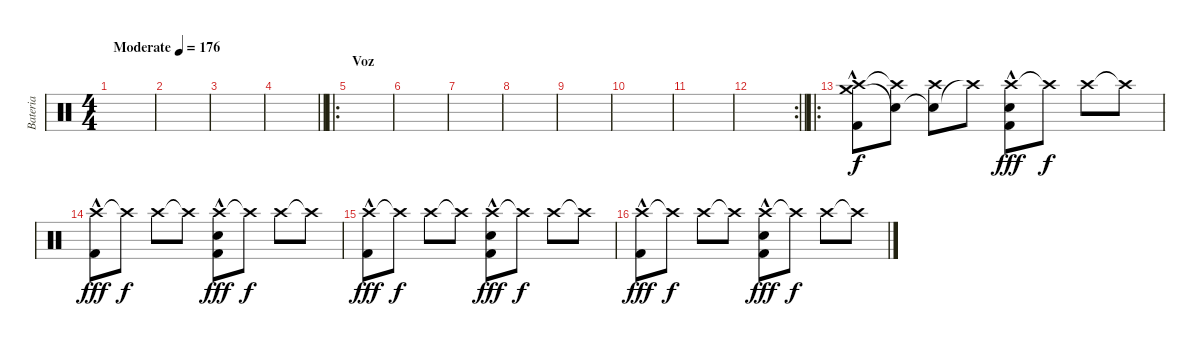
\track ("Bateria" "Bateria") {instrument percussion}
\staff {score}
\articulation defaults
\ts (4 4)
\tempo (176 "Moderate")
\clef neutral
\ks c
|
|
|
\barLineRight lightlight
|
\ro
\section ("" "Voz")
|
|
|
|
|
|
|
\rc 2
\barLineRight lightlight
|
\ro
("Crash medium (hit)" "Crash high (hit)" "Kick (hit) 2"{hac}).8 ("Snare (hit)"{t} "Crash high (hit)"{t}).8{dy f} ("Snare (hit)"{t} "Crash high (hit)").8 "Crash high (hit)"{t}.8 ("Crash high (hit)" "Electric Snare (hit)"{hac} "Kick (hit) 2"{hac}).8{dy fff} "Crash high (hit)"{t}.8{dy f} "Crash high (hit)".8 "Crash high (hit)"{t}.8 |
("Crash high (hit)" "Kick (hit) 2"{hac}).8{dy fff} "Crash high (hit)"{t}.8{dy f} "Crash high (hit)".8 "Crash high (hit)"{t}.8 ("Crash high (hit)" "Electric Snare (hit)"{hac} "Kick (hit) 2"{hac}).8{dy fff} "Crash high (hit)"{t}.8{dy f} "Crash high (hit)".8 "Crash high (hit)"{t}.8 |
("Crash high (hit)" "Kick (hit) 2"{hac}).8{dy fff} "Crash high (hit)"{t}.8{dy f} "Crash high (hit)".8 "Crash high (hit)"{t}.8 ("Crash high (hit)" "Electric Snare (hit)"{hac} "Kick (hit) 2"{hac}).8{dy fff} "Crash high (hit)"{t}.8{dy f} "Crash high (hit)".8 "Crash high (hit)"{t}.8 |
("Crash high (hit)" "Kick (hit) 2"{hac}).8{dy fff} "Crash high (hit)"{t}.8{dy f} "Crash high (hit)".8 "Crash high (hit)"{t}.8 ("Crash high (hit)" "Electric Snare (hit)"{hac} "Kick (hit) 2"{hac}).8{dy fff} "Crash high (hit)"{t}.8{dy f} "Crash high (hit)".8 "Crash high (hit)"{t}.8
